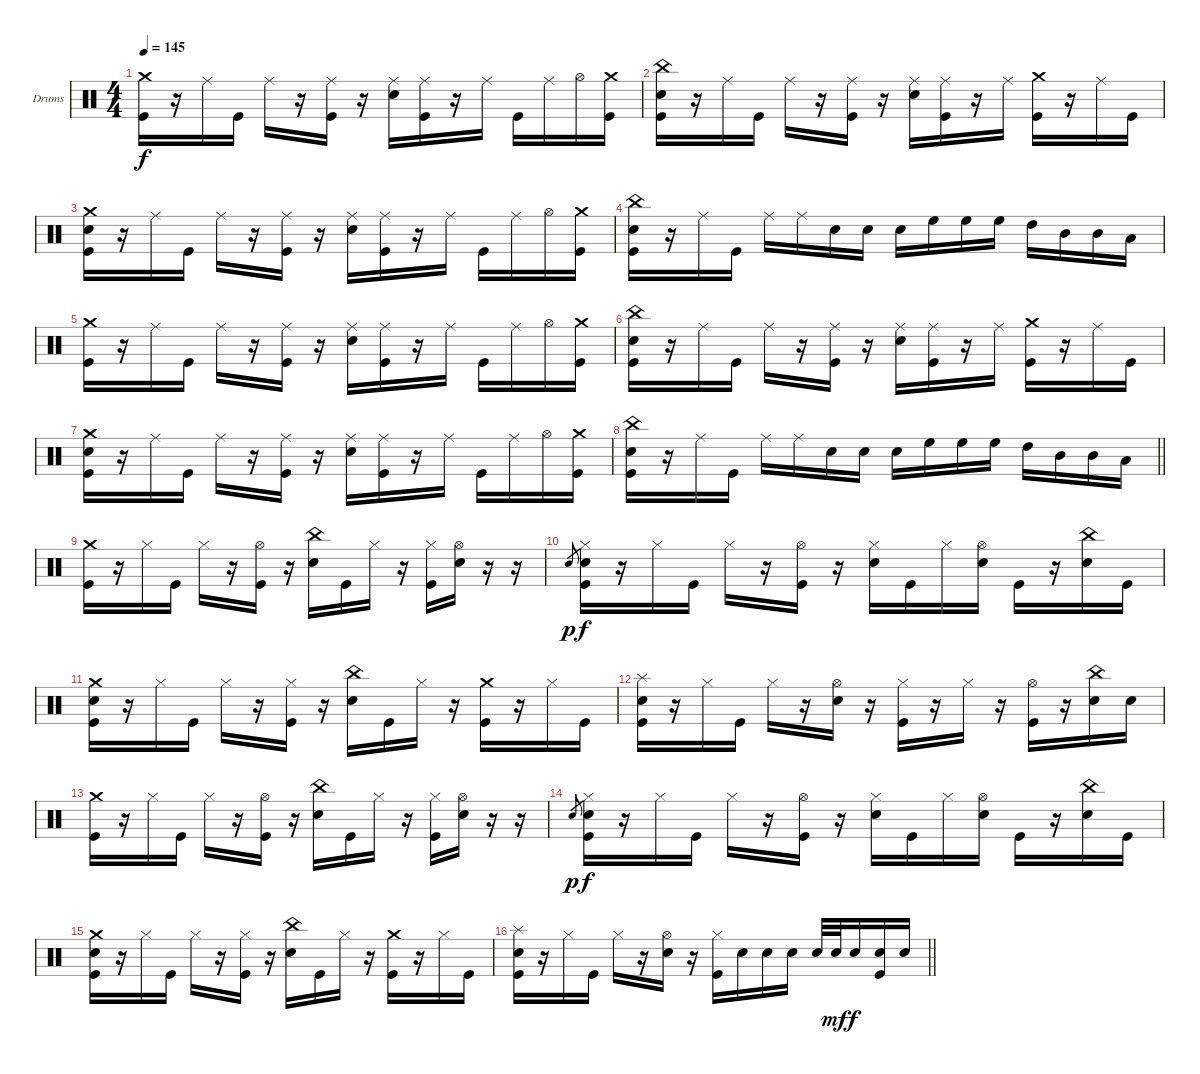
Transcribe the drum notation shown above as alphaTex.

\bracketExtendMode groupsimilarinstruments
\firstSystemTrackNameOrientation horizontal
\otherSystemsTrackNameOrientation horizontal
\track ("Drumkit" "Drums") {instrument percussion}
\staff {score}
\articulation defaults
\ts (4 4)
\tempo 145
\clef neutral
\ks c
("Crash medium (hit)" "Kick (hit)").16{dy f} r.16 "Ride (middle)".16 "Kick (hit)".16 "Ride (middle)".16 r.16 ("Ride (middle)" "Kick (hit)").16 r.16 ("Ride (middle)" "Snare (hit) 2").16 ("Ride (middle)" "Kick (hit)").16 r.16 "Ride (middle)".16 "Kick (hit)".16 "Ride (middle)".16 "Hi-Hat (open)".16 ("Crash medium (hit)" "Kick (hit)").16 |
("China (hit)" "Snare (hit) 2" "Kick (hit)").16 r.16 "Ride (middle)".16 "Kick (hit)".16 "Ride (middle)".16 r.16 ("Ride (middle)" "Kick (hit)").16 r.16 ("Ride (middle)" "Snare (hit) 2").16 ("Ride (middle)" "Kick (hit)").16 r.16 "Ride (middle)".16 ("Crash medium (hit)" "Kick (hit)").16 r.16 "Ride (middle)".16 "Kick (hit)".16 |
("Crash medium (hit)" "Snare (hit) 2" "Kick (hit)").16 r.16 "Ride (middle)".16 "Kick (hit)".16 "Ride (middle)".16 r.16 ("Ride (middle)" "Kick (hit)").16 r.16 ("Ride (middle)" "Snare (hit) 2").16 ("Ride (middle)" "Kick (hit)").16 r.16 "Ride (middle)".16 "Kick (hit)".16 "Ride (middle)".16 "Hi-Hat (open)".16 ("Crash medium (hit)" "Kick (hit)").16 |
("China (hit)" "Snare (hit) 2" "Kick (hit)").16 r.16 "Ride (middle)".16 "Kick (hit)".16 "Ride (middle)".16 "Ride (middle)".16 "Snare (hit) 2".16 "Snare (hit) 2".16 "Snare (hit) 2".16 "High Floor Tom (hit)".16 "High Floor Tom (hit)".16 "High Floor Tom (hit)".16 "High Tom (hit)".16 "Mid Tom (hit)".16 "Mid Tom (hit)".16 "Low Tom (hit)".16 |
("Crash medium (hit)" "Kick (hit)").16 r.16 "Ride (middle)".16 "Kick (hit)".16 "Ride (middle)".16 r.16 ("Ride (middle)" "Kick (hit)").16 r.16 ("Ride (middle)" "Snare (hit) 2").16 ("Ride (middle)" "Kick (hit)").16 r.16 "Ride (middle)".16 "Kick (hit)".16 "Ride (middle)".16 "Hi-Hat (open)".16 ("Crash medium (hit)" "Kick (hit)").16 |
("China (hit)" "Snare (hit) 2" "Kick (hit)").16 r.16 "Ride (middle)".16 "Kick (hit)".16 "Ride (middle)".16 r.16 ("Ride (middle)" "Kick (hit)").16 r.16 ("Ride (middle)" "Snare (hit) 2").16 ("Ride (middle)" "Kick (hit)").16 r.16 "Ride (middle)".16 ("Crash medium (hit)" "Kick (hit)").16 r.16 "Ride (middle)".16 "Kick (hit)".16 |
("Crash medium (hit)" "Snare (hit) 2" "Kick (hit)").16 r.16 "Ride (middle)".16 "Kick (hit)".16 "Ride (middle)".16 r.16 ("Ride (middle)" "Kick (hit)").16 r.16 ("Ride (middle)" "Snare (hit) 2").16 ("Ride (middle)" "Kick (hit)").16 r.16 "Ride (middle)".16 "Kick (hit)".16 "Ride (middle)".16 "Hi-Hat (open)".16 ("Crash medium (hit)" "Kick (hit)").16 |
\barLineRight lightlight
("China (hit)" "Snare (hit) 2" "Kick (hit)").16 r.16 "Ride (middle)".16 "Kick (hit)".16 "Ride (middle)".16 "Ride (middle)".16 "Snare (hit) 2".16 "Snare (hit) 2".16 "Snare (hit) 2".16 "High Floor Tom (hit)".16 "High Floor Tom (hit)".16 "High Floor Tom (hit)".16 "High Tom (hit)".16 "Mid Tom (hit)".16 "Mid Tom (hit)".16 "Low Tom (hit)".16 |
("Crash medium (hit)" "Kick (hit)").16 r.16 "Hi-Hat (closed)".16 "Kick (hit)".16 "Hi-Hat (closed)".16 r.16 ("Hi-Hat (open)" "Kick (hit)").16 r.16 ("China (hit)" "Snare (hit) 2").16 "Kick (hit)".16 "Hi-Hat (closed)".16 r.16 ("Hi-Hat (closed)" "Kick (hit)").16 ("Hi-Hat (open)" "Snare (hit) 2").16 r.16 r.16 |
"Snare (hit) 2".8{gr dy p} ("Hi-Hat (closed)" "Snare (hit) 2" "Kick (hit)").16{dy f} r.16 "Hi-Hat (closed)".16 "Kick (hit)".16 "Hi-Hat (closed)".16 r.16 ("Hi-Hat (open)" "Kick (hit)").16 r.16 ("Hi-Hat (closed)" "Snare (hit) 2").16 "Kick (hit)".16 "Hi-Hat (closed)".16 ("Hi-Hat (open)" "Snare (hit) 2").16 "Kick (hit)".16 r.16 ("China (hit)" "Snare (hit) 2").16 "Kick (hit)".16 |
("Crash medium (hit)" "Snare (hit) 2" "Kick (hit)").16 r.16 "Hi-Hat (closed)".16 "Kick (hit)".16 "Hi-Hat (closed)".16 r.16 ("Hi-Hat (closed)" "Kick (hit)").16 r.16 ("China (hit)" "Snare (hit) 2").16 "Kick (hit)".16 "Hi-Hat (closed)".16 r.16 ("Crash medium (hit)" "Kick (hit)").16 r.16 "Hi-Hat (closed)".16 "Kick (hit)".16 |
("Splash (hit)" "Snare (hit) 2" "Kick (hit)").16 r.16 "Hi-Hat (closed)".16 "Kick (hit)".16 "Hi-Hat (closed)".16 r.16 ("Hi-Hat (open)" "Snare (hit) 2").16 r.16 ("Hi-Hat (closed)" "Kick (hit)").16 r.16 "Hi-Hat (closed)".16 r.16 ("Hi-Hat (open)" "Kick (hit)").16 r.16 ("China (hit)" "Snare (hit) 2").16 "Snare (hit) 2".16 |
("Crash medium (hit)" "Kick (hit)").16 r.16 "Hi-Hat (closed)".16 "Kick (hit)".16 "Hi-Hat (closed)".16 r.16 ("Hi-Hat (open)" "Kick (hit)").16 r.16 ("China (hit)" "Snare (hit) 2").16 "Kick (hit)".16 "Hi-Hat (closed)".16 r.16 ("Hi-Hat (closed)" "Kick (hit)").16 ("Hi-Hat (open)" "Snare (hit) 2").16 r.16 r.16 |
"Snare (hit) 2".8{gr dy p} ("Hi-Hat (closed)" "Snare (hit) 2" "Kick (hit)").16{dy f} r.16 "Hi-Hat (closed)".16 "Kick (hit)".16 "Hi-Hat (closed)".16 r.16 ("Hi-Hat (open)" "Kick (hit)").16 r.16 ("Hi-Hat (closed)" "Snare (hit) 2").16 "Kick (hit)".16 "Hi-Hat (closed)".16 ("Hi-Hat (open)" "Snare (hit) 2").16 "Kick (hit)".16 r.16 ("China (hit)" "Snare (hit) 2").16 "Kick (hit)".16 |
("Crash medium (hit)" "Snare (hit) 2" "Kick (hit)").16 r.16 "Hi-Hat (closed)".16 "Kick (hit)".16 "Hi-Hat (closed)".16 r.16 ("Hi-Hat (closed)" "Kick (hit)").16 r.16 ("China (hit)" "Snare (hit) 2").16 "Kick (hit)".16 "Hi-Hat (closed)".16 r.16 ("Crash medium (hit)" "Kick (hit)").16 r.16 "Hi-Hat (closed)".16 "Kick (hit)".16 |
\barLineRight lightlight
("Splash (hit)" "Snare (hit) 2" "Kick (hit)").16 r.16 "Hi-Hat (closed)".16 "Kick (hit)".16 "Hi-Hat (closed)".16 r.16 ("Hi-Hat (open)" "Snare (hit) 2").16 r.16 ("Hi-Hat (closed)" "Kick (hit)").16 "Snare (hit) 2".16 "Snare (hit) 2".16 "Snare (hit) 2".16 "Snare (hit) 2".32 "Snare (hit) 2".32{dy mf} "Snare (hit) 2".16{dy f} ("Snare (hit) 2" "Kick (hit)").16 "Snare (hit) 2".16
